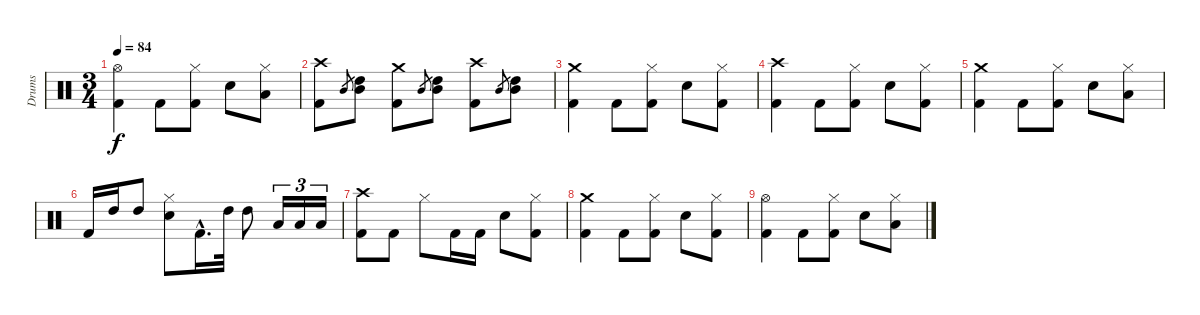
\track ("Drums" "Drums") {instrument percussion}
\staff {score}
\articulation defaults
\ts (3 4)
\tempo 84
\clef neutral
\ks c
("Kick (hit) 2" "Hi-Hat (open)").4{dy f} "Kick (hit) 2".8 ("Kick (hit) 2" "Hi-Hat (closed)").8 "Snare (hit) 2".8 ("Hi-Hat (closed)" "Low Tom (hit)").8 |
("Kick (hit) 2" "Crash high (hit)").8 "Mid Tom (hit)".8{gr} ("Mid Tom (hit)" "High Tom (hit)").8 ("Kick (hit) 2" "Crash medium (hit)").8 "Mid Tom (hit)".8{gr} ("Mid Tom (hit)" "High Tom (hit)").8 ("Kick (hit) 2" "Crash high (hit)").8 "Mid Tom (hit)".8{gr} ("Mid Tom (hit)" "High Tom (hit)").8 |
("Kick (hit) 2" "Crash medium (hit)").4 "Kick (hit) 2".8 ("Kick (hit) 2" "Hi-Hat (closed)").8 "Snare (hit) 2".8 ("Kick (hit) 2" "Hi-Hat (closed)").8 |
("Kick (hit) 2" "Crash high (hit)").4 "Kick (hit) 2".8 ("Kick (hit) 2" "Hi-Hat (closed)").8 "Snare (hit) 2".8 ("Kick (hit) 2" "Hi-Hat (closed)").8 |
("Kick (hit) 2" "Crash medium (hit)").4 "Kick (hit) 2".8 ("Kick (hit) 2" "Hi-Hat (closed)").8 "Snare (hit) 2".8 ("Hi-Hat (closed)" "Low Tom (hit)").8 |
"Kick (hit) 2".16 "High Tom (hit)".16 "High Tom (hit)".8 ("Snare (hit) 2" "Hi-Hat (closed)").8 "Kick (hit) 2"{hac}.16{d} "High Tom (hit)".32 "High Tom (hit)".8 "Low Tom (hit)".16{tu (3 2)} "Low Tom (hit)".16{tu (3 2)} "Low Tom (hit)".16{tu (3 2)} |
("Kick (hit) 2" "Crash high (hit)").8 "Kick (hit) 2".8 "Hi-Hat (closed)".8 "Kick (hit) 2".16 "Kick (hit) 2".16 "Snare (hit) 2".8 ("Kick (hit) 2" "Hi-Hat (closed)").8 |
("Kick (hit) 2" "Crash medium (hit)").4 "Kick (hit) 2".8 ("Kick (hit) 2" "Hi-Hat (closed)").8 "Snare (hit) 2".8 ("Kick (hit) 2" "Hi-Hat (closed)").8 |
("Kick (hit) 2" "Hi-Hat (open)").4 "Kick (hit) 2".8 ("Kick (hit) 2" "Hi-Hat (closed)").8 "Snare (hit) 2".8 ("Hi-Hat (closed)" "Low Tom (hit)").8
